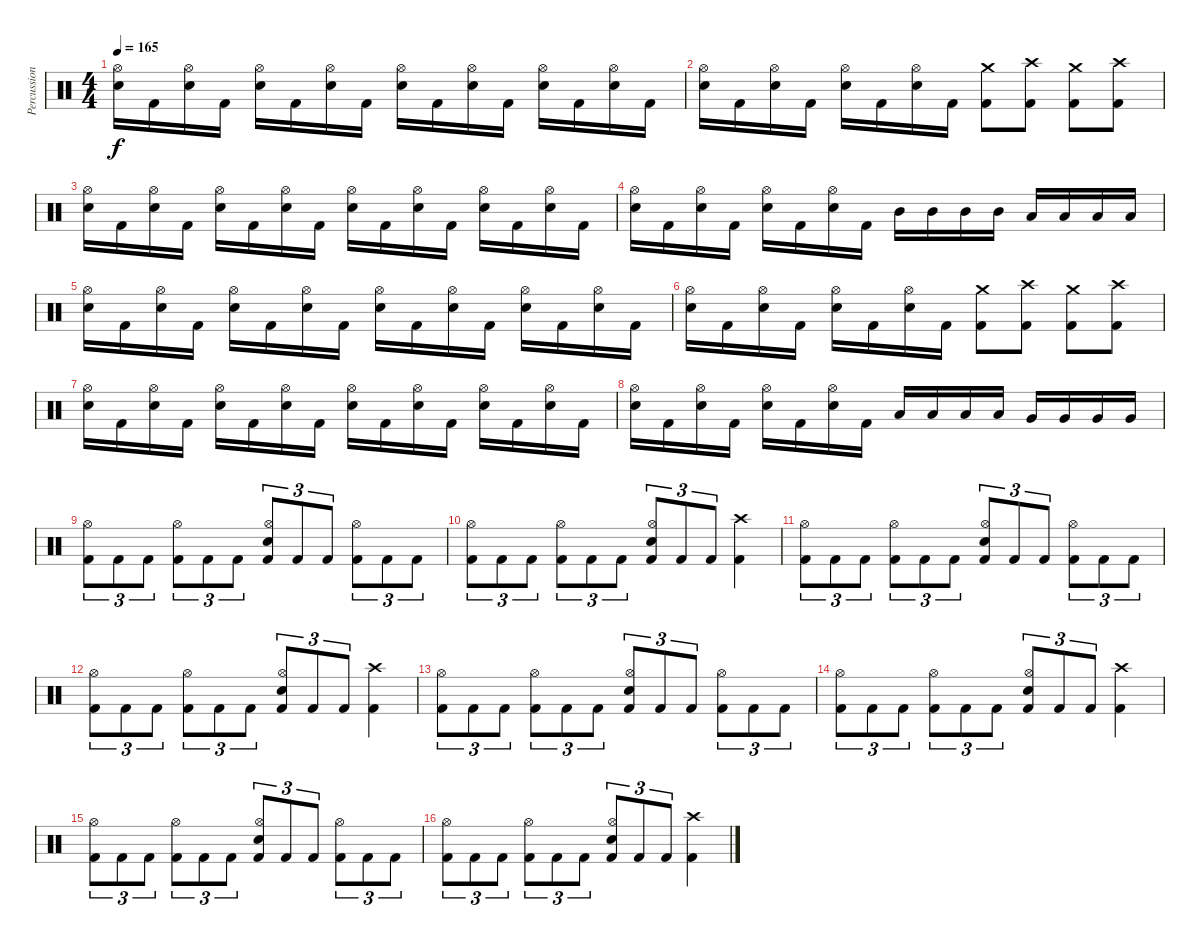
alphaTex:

\track ("Percussion" "Percussion") {instrument percussion}
\staff {score}
\articulation defaults
\ts (4 4)
\tempo 165
\clef neutral
\ks c
("Snare (hit) 2" "Hi-Hat (open)").16{dy f} "Kick (hit) 2".16 ("Snare (hit) 2" "Hi-Hat (open)").16 "Kick (hit) 2".16 ("Snare (hit) 2" "Hi-Hat (open)").16 "Kick (hit) 2".16 ("Snare (hit) 2" "Hi-Hat (open)").16 "Kick (hit) 2".16 ("Snare (hit) 2" "Hi-Hat (open)").16 "Kick (hit) 2".16 ("Snare (hit) 2" "Hi-Hat (open)").16 "Kick (hit) 2".16 ("Snare (hit) 2" "Hi-Hat (open)").16 "Kick (hit) 2".16 ("Snare (hit) 2" "Hi-Hat (open)").16 "Kick (hit) 2".16 |
("Snare (hit) 2" "Hi-Hat (open)").16 "Kick (hit) 2".16 ("Snare (hit) 2" "Hi-Hat (open)").16 "Kick (hit) 2".16 ("Snare (hit) 2" "Hi-Hat (open)").16 "Kick (hit) 2".16 ("Snare (hit) 2" "Hi-Hat (open)").16 "Kick (hit) 2".16 ("Kick (hit) 2" "Crash medium (hit)").8 ("Kick (hit) 2" "Crash high (hit)").8 ("Kick (hit) 2" "Crash medium (hit)").8 ("Kick (hit) 2" "Crash high (hit)").8 |
("Snare (hit) 2" "Hi-Hat (open)").16 "Kick (hit) 2".16 ("Snare (hit) 2" "Hi-Hat (open)").16 "Kick (hit) 2".16 ("Snare (hit) 2" "Hi-Hat (open)").16 "Kick (hit) 2".16 ("Snare (hit) 2" "Hi-Hat (open)").16 "Kick (hit) 2".16 ("Snare (hit) 2" "Hi-Hat (open)").16 "Kick (hit) 2".16 ("Snare (hit) 2" "Hi-Hat (open)").16 "Kick (hit) 2".16 ("Snare (hit) 2" "Hi-Hat (open)").16 "Kick (hit) 2".16 ("Snare (hit) 2" "Hi-Hat (open)").16 "Kick (hit) 2".16 |
("Snare (hit) 2" "Hi-Hat (open)").16 "Kick (hit) 2".16 ("Snare (hit) 2" "Hi-Hat (open)").16 "Kick (hit) 2".16 ("Snare (hit) 2" "Hi-Hat (open)").16 "Kick (hit) 2".16 ("Snare (hit) 2" "Hi-Hat (open)").16 "Kick (hit) 2".16 "Mid Tom (hit)".16 "Mid Tom (hit)".16 "Mid Tom (hit)".16 "Mid Tom (hit)".16 "Low Tom (hit)".16 "Low Tom (hit)".16 "Low Tom (hit)".16 "Low Tom (hit)".16 |
("Snare (hit) 2" "Hi-Hat (open)").16 "Kick (hit) 2".16 ("Snare (hit) 2" "Hi-Hat (open)").16 "Kick (hit) 2".16 ("Snare (hit) 2" "Hi-Hat (open)").16 "Kick (hit) 2".16 ("Snare (hit) 2" "Hi-Hat (open)").16 "Kick (hit) 2".16 ("Snare (hit) 2" "Hi-Hat (open)").16 "Kick (hit) 2".16 ("Snare (hit) 2" "Hi-Hat (open)").16 "Kick (hit) 2".16 ("Snare (hit) 2" "Hi-Hat (open)").16 "Kick (hit) 2".16 ("Snare (hit) 2" "Hi-Hat (open)").16 "Kick (hit) 2".16 |
("Snare (hit) 2" "Hi-Hat (open)").16 "Kick (hit) 2".16 ("Snare (hit) 2" "Hi-Hat (open)").16 "Kick (hit) 2".16 ("Snare (hit) 2" "Hi-Hat (open)").16 "Kick (hit) 2".16 ("Snare (hit) 2" "Hi-Hat (open)").16 "Kick (hit) 2".16 ("Kick (hit) 2" "Crash medium (hit)").8 ("Kick (hit) 2" "Crash high (hit)").8 ("Kick (hit) 2" "Crash medium (hit)").8 ("Kick (hit) 2" "Crash high (hit)").8 |
("Snare (hit) 2" "Hi-Hat (open)").16 "Kick (hit) 2".16 ("Snare (hit) 2" "Hi-Hat (open)").16 "Kick (hit) 2".16 ("Snare (hit) 2" "Hi-Hat (open)").16 "Kick (hit) 2".16 ("Snare (hit) 2" "Hi-Hat (open)").16 "Kick (hit) 2".16 ("Snare (hit) 2" "Hi-Hat (open)").16 "Kick (hit) 2".16 ("Snare (hit) 2" "Hi-Hat (open)").16 "Kick (hit) 2".16 ("Snare (hit) 2" "Hi-Hat (open)").16 "Kick (hit) 2".16 ("Snare (hit) 2" "Hi-Hat (open)").16 "Kick (hit) 2".16 |
("Snare (hit) 2" "Hi-Hat (open)").16 "Kick (hit) 2".16 ("Snare (hit) 2" "Hi-Hat (open)").16 "Kick (hit) 2".16 ("Snare (hit) 2" "Hi-Hat (open)").16 "Kick (hit) 2".16 ("Snare (hit) 2" "Hi-Hat (open)").16 "Kick (hit) 2".16 "Low Tom (hit)".16 "Low Tom (hit)".16 "Low Tom (hit)".16 "Low Tom (hit)".16 "Very Low Tom (hit)".16 "Very Low Tom (hit)".16 "Very Low Tom (hit)".16 "Very Low Tom (hit)".16 |
("Kick (hit) 2" "Hi-Hat (open)").8{tu (3 2)} "Kick (hit) 2".8{tu (3 2)} "Kick (hit) 2".8{tu (3 2)} ("Kick (hit) 2" "Hi-Hat (open)").8{tu (3 2)} "Kick (hit) 2".8{tu (3 2)} "Kick (hit) 2".8{tu (3 2)} ("Kick (hit) 2" "Hi-Hat (open)" "Snare (hit) 2").8{tu (3 2)} "Kick (hit) 2".8{tu (3 2)} "Kick (hit) 2".8{tu (3 2)} ("Kick (hit) 2" "Hi-Hat (open)").8{tu (3 2)} "Kick (hit) 2".8{tu (3 2)} "Kick (hit) 2".8{tu (3 2)} |
("Kick (hit) 2" "Hi-Hat (open)").8{tu (3 2)} "Kick (hit) 2".8{tu (3 2)} "Kick (hit) 2".8{tu (3 2)} ("Kick (hit) 2" "Hi-Hat (open)").8{tu (3 2)} "Kick (hit) 2".8{tu (3 2)} "Kick (hit) 2".8{tu (3 2)} ("Kick (hit) 2" "Hi-Hat (open)" "Snare (hit) 2").8{tu (3 2)} "Kick (hit) 2".8{tu (3 2)} "Kick (hit) 2".8{tu (3 2)} ("Kick (hit) 2" "Crash high (hit)").4 |
("Kick (hit) 2" "Hi-Hat (open)").8{tu (3 2)} "Kick (hit) 2".8{tu (3 2)} "Kick (hit) 2".8{tu (3 2)} ("Kick (hit) 2" "Hi-Hat (open)").8{tu (3 2)} "Kick (hit) 2".8{tu (3 2)} "Kick (hit) 2".8{tu (3 2)} ("Kick (hit) 2" "Hi-Hat (open)" "Snare (hit) 2").8{tu (3 2)} "Kick (hit) 2".8{tu (3 2)} "Kick (hit) 2".8{tu (3 2)} ("Kick (hit) 2" "Hi-Hat (open)").8{tu (3 2)} "Kick (hit) 2".8{tu (3 2)} "Kick (hit) 2".8{tu (3 2)} |
("Kick (hit) 2" "Hi-Hat (open)").8{tu (3 2)} "Kick (hit) 2".8{tu (3 2)} "Kick (hit) 2".8{tu (3 2)} ("Kick (hit) 2" "Hi-Hat (open)").8{tu (3 2)} "Kick (hit) 2".8{tu (3 2)} "Kick (hit) 2".8{tu (3 2)} ("Kick (hit) 2" "Hi-Hat (open)" "Snare (hit) 2").8{tu (3 2)} "Kick (hit) 2".8{tu (3 2)} "Kick (hit) 2".8{tu (3 2)} ("Kick (hit) 2" "Crash high (hit)").4 |
("Kick (hit) 2" "Hi-Hat (open)").8{tu (3 2)} "Kick (hit) 2".8{tu (3 2)} "Kick (hit) 2".8{tu (3 2)} ("Kick (hit) 2" "Hi-Hat (open)").8{tu (3 2)} "Kick (hit) 2".8{tu (3 2)} "Kick (hit) 2".8{tu (3 2)} ("Kick (hit) 2" "Hi-Hat (open)" "Snare (hit) 2").8{tu (3 2)} "Kick (hit) 2".8{tu (3 2)} "Kick (hit) 2".8{tu (3 2)} ("Kick (hit) 2" "Hi-Hat (open)").8{tu (3 2)} "Kick (hit) 2".8{tu (3 2)} "Kick (hit) 2".8{tu (3 2)} |
("Kick (hit) 2" "Hi-Hat (open)").8{tu (3 2)} "Kick (hit) 2".8{tu (3 2)} "Kick (hit) 2".8{tu (3 2)} ("Kick (hit) 2" "Hi-Hat (open)").8{tu (3 2)} "Kick (hit) 2".8{tu (3 2)} "Kick (hit) 2".8{tu (3 2)} ("Kick (hit) 2" "Hi-Hat (open)" "Snare (hit) 2").8{tu (3 2)} "Kick (hit) 2".8{tu (3 2)} "Kick (hit) 2".8{tu (3 2)} ("Kick (hit) 2" "Crash high (hit)").4 |
("Kick (hit) 2" "Hi-Hat (open)").8{tu (3 2)} "Kick (hit) 2".8{tu (3 2)} "Kick (hit) 2".8{tu (3 2)} ("Kick (hit) 2" "Hi-Hat (open)").8{tu (3 2)} "Kick (hit) 2".8{tu (3 2)} "Kick (hit) 2".8{tu (3 2)} ("Kick (hit) 2" "Hi-Hat (open)" "Snare (hit) 2").8{tu (3 2)} "Kick (hit) 2".8{tu (3 2)} "Kick (hit) 2".8{tu (3 2)} ("Kick (hit) 2" "Hi-Hat (open)").8{tu (3 2)} "Kick (hit) 2".8{tu (3 2)} "Kick (hit) 2".8{tu (3 2)} |
("Kick (hit) 2" "Hi-Hat (open)").8{tu (3 2)} "Kick (hit) 2".8{tu (3 2)} "Kick (hit) 2".8{tu (3 2)} ("Kick (hit) 2" "Hi-Hat (open)").8{tu (3 2)} "Kick (hit) 2".8{tu (3 2)} "Kick (hit) 2".8{tu (3 2)} ("Kick (hit) 2" "Hi-Hat (open)" "Snare (hit) 2").8{tu (3 2)} "Kick (hit) 2".8{tu (3 2)} "Kick (hit) 2".8{tu (3 2)} ("Kick (hit) 2" "Crash high (hit)").4
